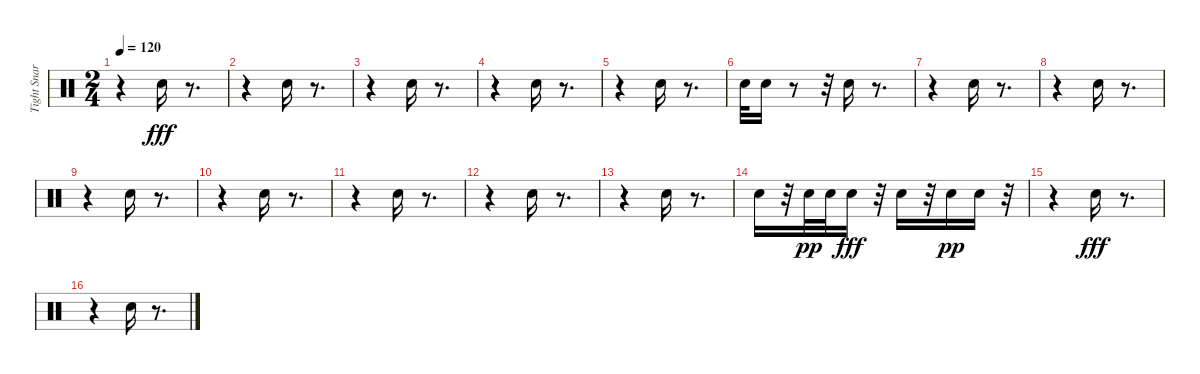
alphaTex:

\track ("Tight Snare (1) (1) (1) (1)" "Tight Snar") {instrument percussion}
\staff {score}
\articulation defaults
\ts (2 4)
\tempo 120
\clef neutral
\ks c
r.4{dy fff} "Electric Snare (hit)".16 r.8{d} |
r.4 "Electric Snare (hit)".16 r.8{d} |
r.4 "Electric Snare (hit)".16 r.8{d} |
r.4 "Electric Snare (hit)".16 r.8{d} |
r.4 "Electric Snare (hit)".16 r.8{d} |
"Electric Snare (hit)".32 "Electric Snare (hit)".16 r.8 r.32 "Electric Snare (hit)".16 r.8{d} |
r.4 "Electric Snare (hit)".16 r.8{d} |
r.4 "Electric Snare (hit)".16 r.8{d} |
r.4 "Electric Snare (hit)".16 r.8{d} |
r.4 "Electric Snare (hit)".16 r.8{d} |
r.4 "Electric Snare (hit)".16 r.8{d} |
r.4 "Electric Snare (hit)".16 r.8{d} |
r.4 "Electric Snare (hit)".16 r.8{d} |
"Electric Snare (hit)".16 r.32 "Electric Snare (hit)".32{dy pp} "Electric Snare (hit)".32 "Electric Snare (hit)".16{dy fff} r.32 "Electric Snare (hit)".16 r.32 "Electric Snare (hit)".16{dy pp} "Electric Snare (hit)".16 r.32 |
r.4 "Electric Snare (hit)".16{dy fff} r.8{d} |
r.4 "Electric Snare (hit)".16 r.8{d}
